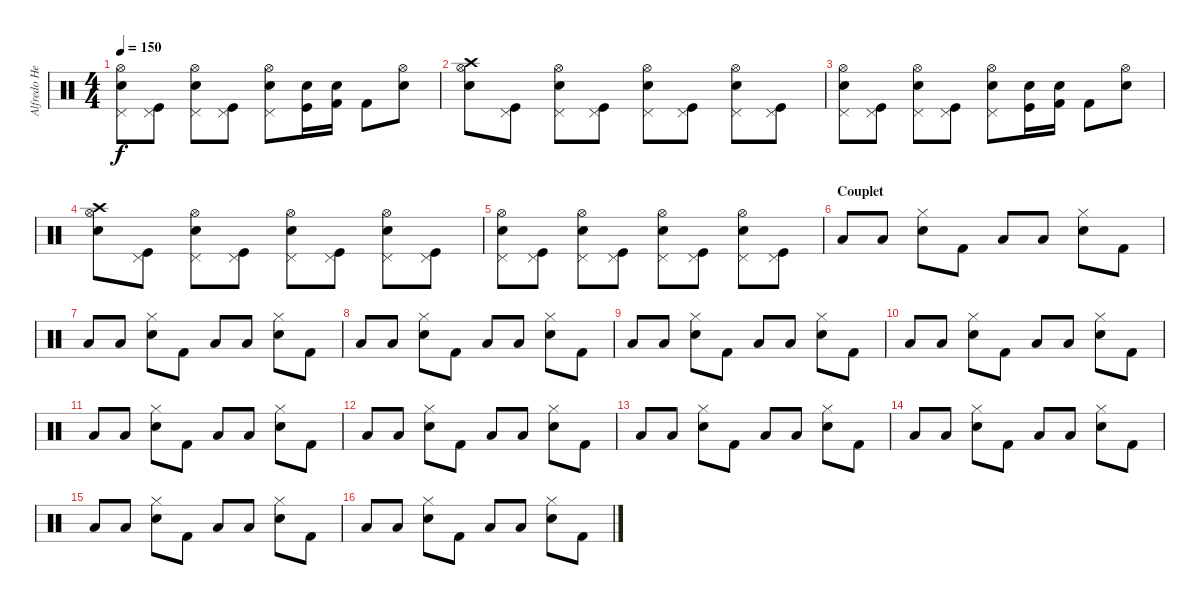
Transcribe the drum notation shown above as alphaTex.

\track ("Alfredo Hernandez" "Alfredo He") {instrument percussion}
\staff {score}
\articulation defaults
\ts (4 4)
\tempo 150
\clef neutral
\ks c
("Electric Snare (hit)" "Pedal Hi-Hat (hit)" "Hi-Hat (open)").8{dy f} ("Kick (hit)" "Pedal Hi-Hat (hit)").8 ("Electric Snare (hit)" "Pedal Hi-Hat (hit)" "Hi-Hat (open)").8 ("Kick (hit)" "Pedal Hi-Hat (hit)").8 ("Electric Snare (hit)" "Pedal Hi-Hat (hit)" "Hi-Hat (open)").8 ("Kick (hit)" "Electric Snare (hit)").16 ("Kick (hit) 2" "Electric Snare (hit)").16 "Kick (hit) 2".8 ("Electric Snare (hit)" "Hi-Hat (open)").8 |
("Electric Snare (hit)" "Crash high (hit)" "Hi-Hat (open)").8 ("Kick (hit)" "Pedal Hi-Hat (hit)").8 ("Electric Snare (hit)" "Pedal Hi-Hat (hit)" "Hi-Hat (open)").8 ("Kick (hit)" "Pedal Hi-Hat (hit)").8 ("Electric Snare (hit)" "Pedal Hi-Hat (hit)" "Hi-Hat (open)").8 ("Kick (hit)" "Pedal Hi-Hat (hit)").8 ("Electric Snare (hit)" "Pedal Hi-Hat (hit)" "Hi-Hat (open)").8 ("Kick (hit)" "Pedal Hi-Hat (hit)").8 |
("Electric Snare (hit)" "Pedal Hi-Hat (hit)" "Hi-Hat (open)").8 ("Kick (hit)" "Pedal Hi-Hat (hit)").8 ("Electric Snare (hit)" "Pedal Hi-Hat (hit)" "Hi-Hat (open)").8 ("Kick (hit)" "Pedal Hi-Hat (hit)").8 ("Electric Snare (hit)" "Pedal Hi-Hat (hit)" "Hi-Hat (open)").8 ("Kick (hit)" "Electric Snare (hit)").16 ("Kick (hit) 2" "Electric Snare (hit)").16 "Kick (hit) 2".8 ("Electric Snare (hit)" "Hi-Hat (open)").8 |
("Electric Snare (hit)" "Crash high (hit)" "Hi-Hat (open)").8 ("Kick (hit)" "Pedal Hi-Hat (hit)").8 ("Electric Snare (hit)" "Pedal Hi-Hat (hit)" "Hi-Hat (open)").8 ("Kick (hit)" "Pedal Hi-Hat (hit)").8 ("Electric Snare (hit)" "Pedal Hi-Hat (hit)" "Hi-Hat (open)").8 ("Kick (hit)" "Pedal Hi-Hat (hit)").8 ("Electric Snare (hit)" "Pedal Hi-Hat (hit)" "Hi-Hat (open)").8 ("Kick (hit)" "Pedal Hi-Hat (hit)").8 |
("Electric Snare (hit)" "Pedal Hi-Hat (hit)" "Hi-Hat (open)").8 ("Kick (hit)" "Pedal Hi-Hat (hit)").8 ("Electric Snare (hit)" "Pedal Hi-Hat (hit)" "Hi-Hat (open)").8 ("Kick (hit)" "Pedal Hi-Hat (hit)").8 ("Electric Snare (hit)" "Pedal Hi-Hat (hit)" "Hi-Hat (open)").8 ("Kick (hit)" "Pedal Hi-Hat (hit)").8 ("Electric Snare (hit)" "Pedal Hi-Hat (hit)" "Hi-Hat (open)").8 ("Kick (hit)" "Pedal Hi-Hat (hit)").8 |
\section ("" "Couplet")
"Low Tom (hit)".8 "Low Tom (hit)".8 ("Snare (hit) 2" "Hi-Hat (closed)").8 "Kick (hit) 2".8 "Low Tom (hit)".8 "Low Tom (hit)".8 ("Snare (hit) 2" "Hi-Hat (closed)").8 "Kick (hit) 2".8 |
"Low Tom (hit)".8 "Low Tom (hit)".8 ("Snare (hit) 2" "Hi-Hat (closed)").8 "Kick (hit) 2".8 "Low Tom (hit)".8 "Low Tom (hit)".8 ("Snare (hit) 2" "Hi-Hat (closed)").8 "Kick (hit) 2".8 |
"Low Tom (hit)".8 "Low Tom (hit)".8 ("Snare (hit) 2" "Hi-Hat (closed)").8 "Kick (hit) 2".8 "Low Tom (hit)".8 "Low Tom (hit)".8 ("Snare (hit) 2" "Hi-Hat (closed)").8 "Kick (hit) 2".8 |
"Low Tom (hit)".8 "Low Tom (hit)".8 ("Snare (hit) 2" "Hi-Hat (closed)").8 "Kick (hit) 2".8 "Low Tom (hit)".8 "Low Tom (hit)".8 ("Snare (hit) 2" "Hi-Hat (closed)").8 "Kick (hit) 2".8 |
"Low Tom (hit)".8 "Low Tom (hit)".8 ("Snare (hit) 2" "Hi-Hat (closed)").8 "Kick (hit) 2".8 "Low Tom (hit)".8 "Low Tom (hit)".8 ("Snare (hit) 2" "Hi-Hat (closed)").8 "Kick (hit) 2".8 |
"Low Tom (hit)".8 "Low Tom (hit)".8 ("Snare (hit) 2" "Hi-Hat (closed)").8 "Kick (hit) 2".8 "Low Tom (hit)".8 "Low Tom (hit)".8 ("Snare (hit) 2" "Hi-Hat (closed)").8 "Kick (hit) 2".8 |
"Low Tom (hit)".8 "Low Tom (hit)".8 ("Snare (hit) 2" "Hi-Hat (closed)").8 "Kick (hit) 2".8 "Low Tom (hit)".8 "Low Tom (hit)".8 ("Snare (hit) 2" "Hi-Hat (closed)").8 "Kick (hit) 2".8 |
"Low Tom (hit)".8 "Low Tom (hit)".8 ("Snare (hit) 2" "Hi-Hat (closed)").8 "Kick (hit) 2".8 "Low Tom (hit)".8 "Low Tom (hit)".8 ("Snare (hit) 2" "Hi-Hat (closed)").8 "Kick (hit) 2".8 |
"Low Tom (hit)".8 "Low Tom (hit)".8 ("Snare (hit) 2" "Hi-Hat (closed)").8 "Kick (hit) 2".8 "Low Tom (hit)".8 "Low Tom (hit)".8 ("Snare (hit) 2" "Hi-Hat (closed)").8 "Kick (hit) 2".8 |
"Low Tom (hit)".8 "Low Tom (hit)".8 ("Snare (hit) 2" "Hi-Hat (closed)").8 "Kick (hit) 2".8 "Low Tom (hit)".8 "Low Tom (hit)".8 ("Snare (hit) 2" "Hi-Hat (closed)").8 "Kick (hit) 2".8 |
"Low Tom (hit)".8 "Low Tom (hit)".8 ("Snare (hit) 2" "Hi-Hat (closed)").8 "Kick (hit) 2".8 "Low Tom (hit)".8 "Low Tom (hit)".8 ("Snare (hit) 2" "Hi-Hat (closed)").8 "Kick (hit) 2".8
